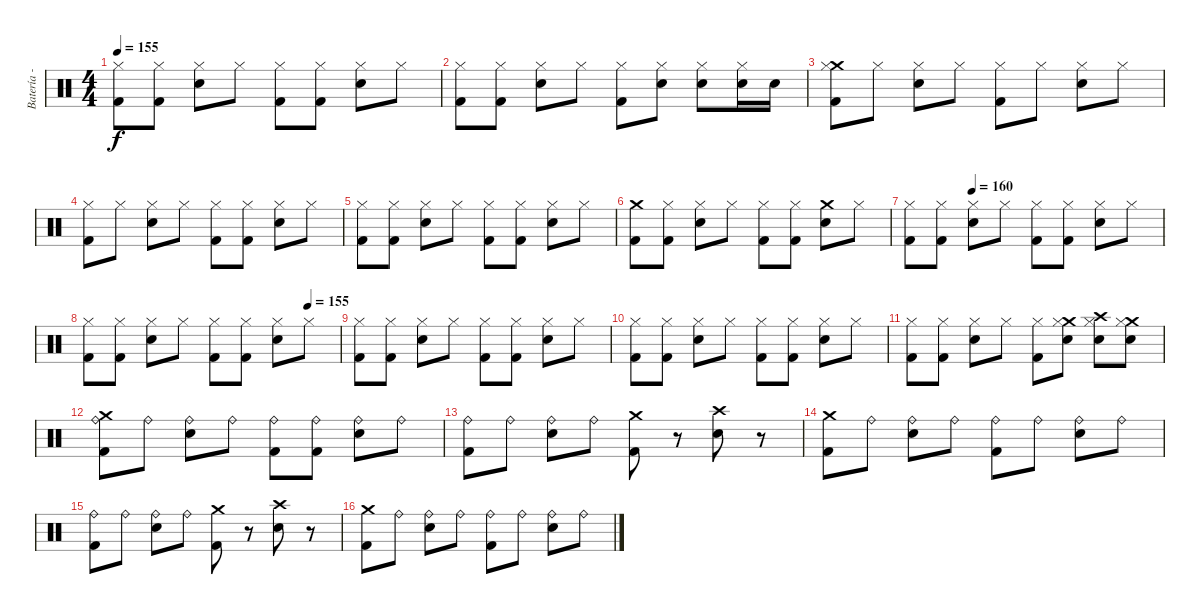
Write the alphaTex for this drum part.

\track ("Batería - Edu" "Batería - ") {instrument percussion}
\staff {score}
\articulation defaults
\ts (4 4)
\tempo 155
\clef neutral
\ks c
("Kick (hit) 2" "Hi-Hat (closed)").8{dy f} ("Kick (hit) 2" "Hi-Hat (closed)").8 ("Electric Snare (hit)" "Hi-Hat (closed)").8 "Hi-Hat (closed)".8 ("Kick (hit) 2" "Hi-Hat (closed)").8 ("Kick (hit) 2" "Hi-Hat (closed)").8 ("Electric Snare (hit)" "Hi-Hat (closed)").8 "Hi-Hat (closed)".8 |
("Kick (hit) 2" "Hi-Hat (closed)").8 ("Kick (hit) 2" "Hi-Hat (closed)").8 ("Electric Snare (hit)" "Hi-Hat (closed)").8 "Hi-Hat (closed)".8 ("Kick (hit) 2" "Hi-Hat (closed)").8 ("Electric Snare (hit)" "Hi-Hat (closed)").8 ("Electric Snare (hit)" "Hi-Hat (closed)").8 ("Electric Snare (hit)" "Hi-Hat (closed)").16 "Snare (hit) 2".16 |
("Crash medium (hit)" "Kick (hit) 2" "Hi-Hat (closed)").8 "Hi-Hat (closed)".8 ("Electric Snare (hit)" "Hi-Hat (closed)").8 "Hi-Hat (closed)".8 ("Kick (hit) 2" "Hi-Hat (closed)").8 "Hi-Hat (closed)".8 ("Electric Snare (hit)" "Hi-Hat (closed)").8 "Hi-Hat (closed)".8 |
("Kick (hit) 2" "Hi-Hat (closed)").8 "Hi-Hat (closed)".8 ("Electric Snare (hit)" "Hi-Hat (closed)").8 "Hi-Hat (closed)".8 ("Kick (hit) 2" "Hi-Hat (closed)").8 ("Kick (hit) 2" "Hi-Hat (closed)").8 ("Electric Snare (hit)" "Hi-Hat (closed)").8 "Hi-Hat (closed)".8 |
("Kick (hit) 2" "Hi-Hat (closed)").8 ("Kick (hit) 2" "Hi-Hat (closed)").8 ("Electric Snare (hit)" "Hi-Hat (closed)").8 "Hi-Hat (closed)".8 ("Kick (hit) 2" "Hi-Hat (closed)").8 ("Kick (hit) 2" "Hi-Hat (closed)").8 ("Electric Snare (hit)" "Hi-Hat (closed)").8 "Hi-Hat (closed)".8 |
("Kick (hit) 2" "Crash medium (hit)").8 ("Kick (hit) 2" "Hi-Hat (closed)").8 ("Electric Snare (hit)" "Hi-Hat (closed)").8 "Hi-Hat (closed)".8 ("Kick (hit) 2" "Hi-Hat (closed)").8 ("Kick (hit) 2" "Hi-Hat (closed)").8 ("Electric Snare (hit)" "Crash medium (hit)").8 "Hi-Hat (closed)".8 |
\tempo (160 0.25)
("Kick (hit) 2" "Hi-Hat (closed)").8 ("Kick (hit) 2" "Hi-Hat (closed)").8 ("Electric Snare (hit)" "Hi-Hat (closed)").8 "Hi-Hat (closed)".8 ("Kick (hit) 2" "Hi-Hat (closed)").8 ("Kick (hit) 2" "Hi-Hat (closed)").8 ("Electric Snare (hit)" "Hi-Hat (closed)").8 "Hi-Hat (closed)".8 |
\tempo (155 0.875)
("Kick (hit) 2" "Hi-Hat (closed)").8 ("Kick (hit) 2" "Hi-Hat (closed)").8 ("Electric Snare (hit)" "Hi-Hat (closed)").8 "Hi-Hat (closed)".8 ("Kick (hit) 2" "Hi-Hat (closed)").8 ("Kick (hit) 2" "Hi-Hat (closed)").8 ("Electric Snare (hit)" "Hi-Hat (closed)").8 "Hi-Hat (closed)".8 |
("Kick (hit) 2" "Hi-Hat (closed)").8 ("Kick (hit) 2" "Hi-Hat (closed)").8 ("Electric Snare (hit)" "Hi-Hat (closed)").8 "Hi-Hat (closed)".8 ("Kick (hit) 2" "Hi-Hat (closed)").8 ("Kick (hit) 2" "Hi-Hat (closed)").8 ("Electric Snare (hit)" "Hi-Hat (closed)").8 "Hi-Hat (closed)".8 |
("Kick (hit) 2" "Hi-Hat (closed)").8 ("Kick (hit) 2" "Hi-Hat (closed)").8 ("Electric Snare (hit)" "Hi-Hat (closed)").8 "Hi-Hat (closed)".8 ("Kick (hit) 2" "Hi-Hat (closed)").8 ("Kick (hit) 2" "Hi-Hat (closed)").8 ("Electric Snare (hit)" "Hi-Hat (closed)").8 "Hi-Hat (closed)".8 |
("Kick (hit) 2" "Hi-Hat (closed)").8 ("Kick (hit) 2" "Hi-Hat (closed)").8 ("Electric Snare (hit)" "Hi-Hat (closed)").8 "Hi-Hat (closed)".8 ("Kick (hit) 2" "Hi-Hat (closed)").8 ("Crash medium (hit)" "Electric Snare (hit)" "Hi-Hat (closed)").8 ("Crash high (hit)" "Electric Snare (hit)" "Hi-Hat (closed)").8 ("Crash medium (hit)" "Electric Snare (hit)" "Hi-Hat (closed)").8 |
("Ride (bell)" "Crash medium (hit)" "Kick (hit) 2").8 "Ride (bell)".8 ("Ride (bell)" "Electric Snare (hit)").8 "Ride (bell)".8 ("Ride (bell)" "Kick (hit) 2").8 ("Ride (bell)" "Kick (hit) 2").8 ("Ride (bell)" "Electric Snare (hit)").8 "Ride (bell)".8 |
("Ride (bell)" "Kick (hit) 2").8 "Ride (bell)".8 ("Ride (bell)" "Electric Snare (hit)").8 "Ride (bell)".8 ("Crash medium (hit)" "Kick (hit) 2").8 r.8 ("Crash high (hit)" "Electric Snare (hit)").8 r.8 |
("Crash medium (hit)" "Kick (hit) 2").8 "Ride (bell)".8 ("Ride (bell)" "Electric Snare (hit)").8 "Ride (bell)".8 ("Ride (bell)" "Kick (hit) 2").8 "Ride (bell)".8 ("Ride (bell)" "Electric Snare (hit)").8 "Ride (bell)".8 |
("Ride (bell)" "Kick (hit) 2").8 "Ride (bell)".8 ("Ride (bell)" "Electric Snare (hit)").8 "Ride (bell)".8 ("Crash medium (hit)" "Kick (hit) 2").8 r.8 ("Crash high (hit)" "Electric Snare (hit)").8 r.8 |
("Crash medium (hit)" "Kick (hit) 2").8 "Ride (bell)".8 ("Ride (bell)" "Electric Snare (hit)").8 "Ride (bell)".8 ("Ride (bell)" "Kick (hit) 2").8 "Ride (bell)".8 ("Ride (bell)" "Electric Snare (hit)").8 "Ride (bell)".8
